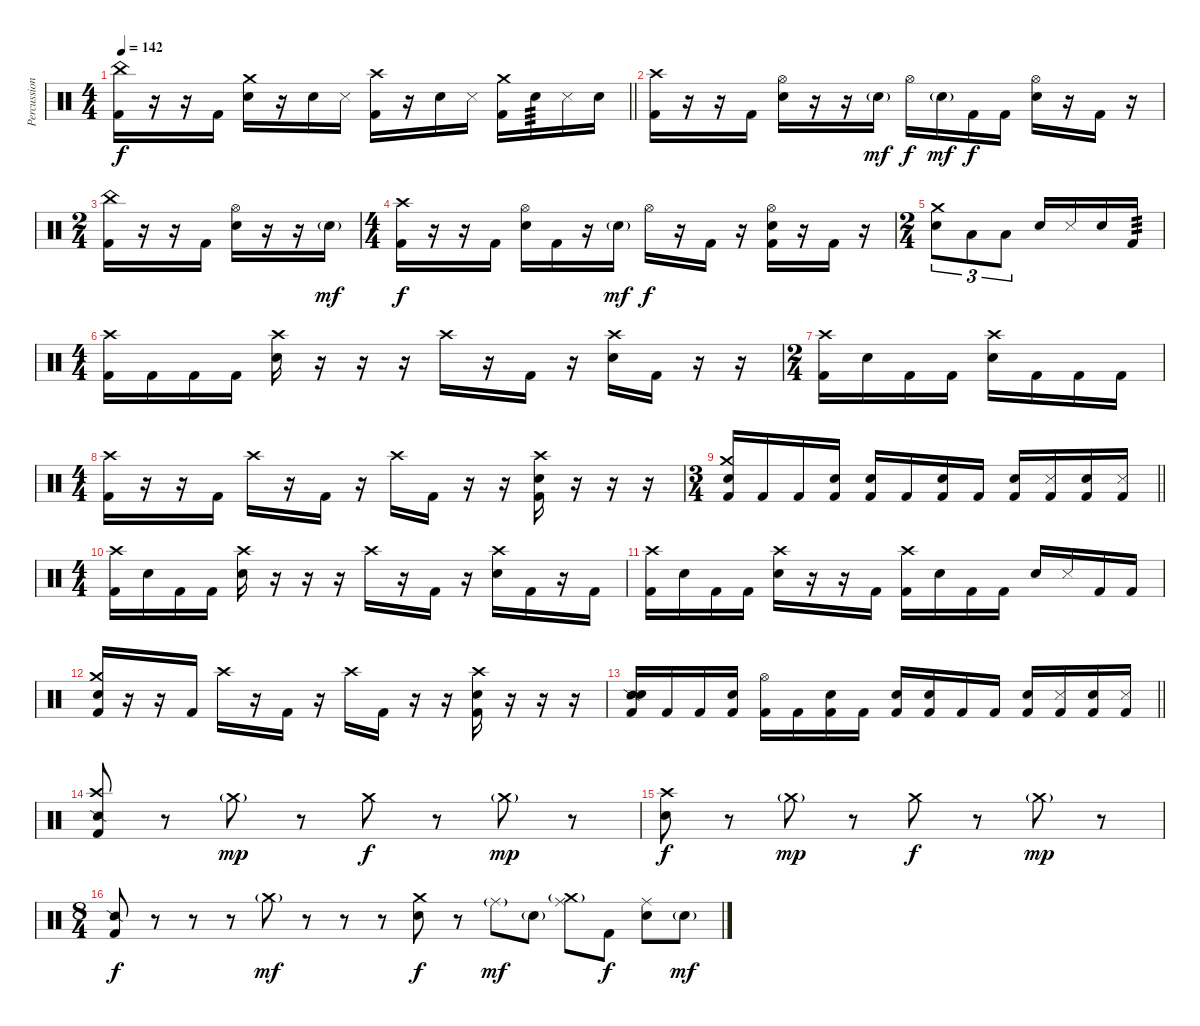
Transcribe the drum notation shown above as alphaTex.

\track ("Percussion" "Percussion") {instrument percussion}
\staff {score}
\articulation defaults
\ts (4 4)
\tempo 142
\clef neutral
\barLineRight lightlight
\ks c
("China (hit)" "Kick (hit) 2").16{dy f} r.16 r.16 "Kick (hit) 2".16 ("Crash medium (hit)" "Snare (hit) 2").16 r.16 "Snare (hit) 2".16 "Metronome (hit)".16 ("Crash high (hit)" "Kick (hit) 2").16 r.16 "Snare (hit) 2".16 "Metronome (hit)".16 ("Crash medium (hit)" "Kick (hit) 2").16 "Snare (hit) 2".16{tp 3} "Metronome (hit)".16 "Snare (hit) 2".16 |
\section ("" "")
("Crash high (hit)" "Kick (hit) 2").16 r.16 r.16 "Kick (hit) 2".16 ("Hi-Hat (open)" "Snare (hit) 2").16 r.16 r.16 "Snare (hit) 2"{g}.16{dy mf} "Hi-Hat (open)".16{dy f} "Snare (hit) 2"{g}.16{dy mf} "Kick (hit) 2".16{dy f} "Kick (hit) 2".16 ("Hi-Hat (open)" "Snare (hit) 2").16 r.16 "Kick (hit) 2".16 r.16 |
\ts (2 4)
("China (hit)" "Kick (hit) 2").16 r.16 r.16 "Kick (hit) 2".16 ("Hi-Hat (open)" "Snare (hit) 2").16 r.16 r.16 "Snare (hit) 2"{g}.16{dy mf} |
\ts (4 4)
("Crash high (hit)" "Kick (hit) 2").16{dy f} r.16 r.16 "Kick (hit) 2".16 ("Hi-Hat (open)" "Snare (hit) 2").16 "Kick (hit) 2".16 r.16 "Snare (hit) 2"{g}.16{dy mf} "Hi-Hat (open)".16{dy f} r.16 "Kick (hit) 2".16 r.16 ("Hi-Hat (open)" "Snare (hit) 2" "Kick (hit) 2").16 r.16 "Kick (hit) 2".16 r.16 |
\ts (2 4)
("Crash medium (hit)" "Snare (hit) 2").8{tu (3 2)} "Low Tom (hit)".8{tu (3 2)} "Low Tom (hit)".8{tu (3 2)} "Snare (hit) 2".16 "Metronome (hit)".16 "Snare (hit) 2".16 "Kick (hit) 2".16{tp 3} |
\ts (4 4)
("Crash high (hit)" "Kick (hit) 2").16 "Kick (hit) 2".16 "Kick (hit) 2".16 "Kick (hit) 2".16 ("Crash high (hit)" "Snare (hit) 2").16 r.16 r.16 r.16 "Crash high (hit)".16 r.16 "Kick (hit) 2".16 r.16 ("Crash high (hit)" "Snare (hit) 2").16 "Kick (hit) 2".16 r.16 r.16 |
\ts (2 4)
("Crash high (hit)" "Kick (hit) 2").16 "Snare (hit) 2".16 "Kick (hit) 2".16 "Kick (hit) 2".16 ("Crash high (hit)" "Snare (hit) 2").16 "Kick (hit) 2".16 "Kick (hit) 2".16 "Kick (hit) 2".16 |
\ts (4 4)
("Crash high (hit)" "Kick (hit) 2").16 r.16 r.16 "Kick (hit) 2".16 "Crash high (hit)".16 r.16 "Kick (hit) 2".16 r.16 "Crash high (hit)".16 "Kick (hit) 2".16 r.16 r.16 ("Crash high (hit)" "Snare (hit) 2" "Kick (hit) 2").16 r.16 r.16 r.16 |
\ts (3 4)
\barLineRight lightlight
("Crash medium (hit)" "Snare (hit) 2" "Kick (hit) 2").16 "Kick (hit) 2".16 "Kick (hit) 2".16 ("Snare (hit) 2" "Kick (hit) 2").16 ("Snare (hit)" "Kick (hit) 2").16 "Kick (hit) 2".16 ("Snare (hit) 2" "Kick (hit) 2").16 "Kick (hit) 2".16 ("Snare (hit) 2" "Kick (hit) 2").16 ("Metronome (hit)" "Kick (hit) 2").16 ("Snare (hit) 2" "Kick (hit) 2").16 ("Metronome (hit)" "Kick (hit) 2").16 |
\ts (4 4)
("Crash high (hit)" "Kick (hit) 2").16 "Snare (hit) 2".16 "Kick (hit) 2".16 "Kick (hit) 2".16 ("Crash high (hit)" "Snare (hit) 2").16 r.16 r.16 r.16 "Crash high (hit)".16 r.16 "Kick (hit) 2".16 r.16 ("Crash high (hit)" "Snare (hit) 2").16 "Kick (hit) 2".16 r.16 "Kick (hit) 2".16 |
("Crash high (hit)" "Kick (hit) 2").16 "Snare (hit) 2".16 "Kick (hit) 2".16 "Kick (hit) 2".16 ("Crash high (hit)" "Snare (hit) 2").16 r.16 r.16 "Kick (hit) 2".16 ("Crash high (hit)" "Kick (hit) 2").16 "Snare (hit) 2".16 "Kick (hit) 2".16 "Kick (hit) 2".16 "Snare (hit) 2".16 "Metronome (hit)".16 "Kick (hit) 2".16 "Kick (hit) 2".16 |
("Crash medium (hit)" "Snare (hit) 2" "Kick (hit) 2").16 r.16 r.16 "Kick (hit) 2".16 "Crash high (hit)".16 r.16 "Kick (hit) 2".16 r.16 "Crash high (hit)".16 "Kick (hit) 2".16 r.16 r.16 ("Crash high (hit)" "Snare (hit) 2" "Kick (hit) 2").16 r.16 r.16 r.16 |
\barLineRight lightlight
("Snare (side stick) 2" "Snare (hit) 2" "Kick (hit) 2").16 "Kick (hit) 2".16 "Kick (hit) 2".16 ("Snare (hit) 2" "Kick (hit) 2").16 ("Hi-Hat (open)" "Kick (hit) 2").16 "Kick (hit) 2".16 ("Snare (hit) 2" "Kick (hit) 2").16 "Kick (hit) 2".16 ("Snare (hit)" "Kick (hit) 2").16 ("Snare (hit) 2" "Kick (hit) 2").16 "Kick (hit) 2".16 "Kick (hit) 2".16 ("Snare (hit) 2" "Kick (hit) 2").16 ("Metronome (hit)" "Kick (hit) 2").16 ("Snare (hit) 2" "Kick (hit) 2").16 ("Metronome (hit)" "Kick (hit) 2").16 |
\section ("" "")
("Snare (side stick) 2" "Crash high (hit)" "Kick (hit) 2").8 r.8 "Crash medium (hit)"{g}.8{dy mp} r.8 "Crash medium (hit)".8{dy f} r.8 "Crash medium (hit)"{g}.8{dy mp} r.8 |
("Crash high (hit)" "Snare (hit) 2").8{dy f} r.8 "Crash medium (hit)"{g}.8{dy mp} r.8 "Crash medium (hit)".8{dy f} r.8 "Crash medium (hit)"{g}.8{dy mp} r.8 |
\ts (8 4)
("Snare (side stick) 2" "Kick (hit) 2").8{dy f} r.8 r.8 r.8 "Crash medium (hit)"{g}.8{dy mf} r.8 r.8 r.8 ("Crash medium (hit)" "Snare (hit) 2").8{dy f} r.8 "Ride (middle)"{g}.8{dy mf} "Snare (hit) 2"{g}.8 ("Ride (middle)" "Crash medium (hit)"{g}).8 "Kick (hit) 2".8{dy f} ("Ride (middle)" "Snare (hit) 2").8 "Snare (hit) 2"{g}.8{dy mf}
